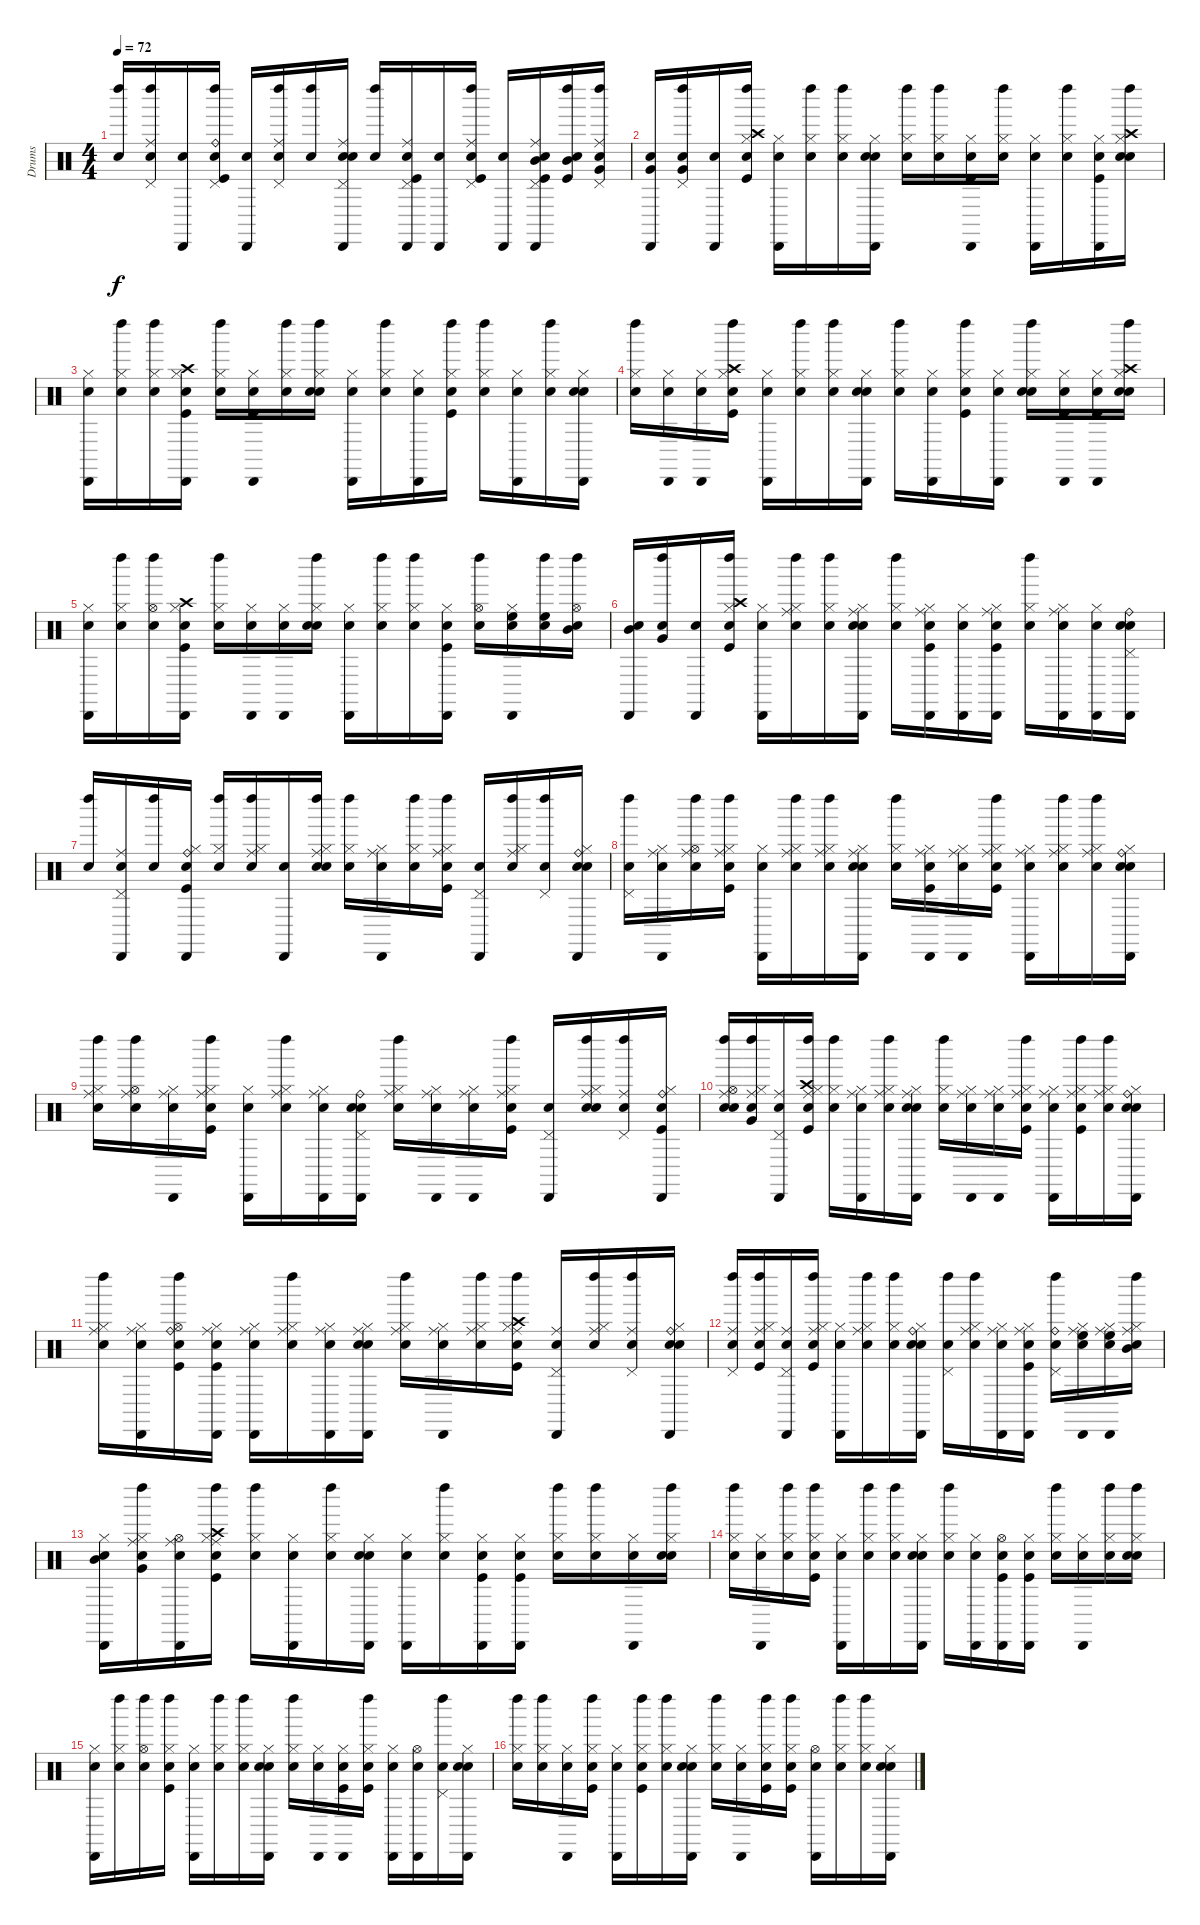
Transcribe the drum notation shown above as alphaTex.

\track ("Drums   " "Drums   ") {instrument percussion}
\staff {score}
\articulation defaults
\ts (4 4)
\tempo 72
\clef neutral
\ks c
("Snare (hit)" "Left Maraca (hit)").16{dy f} ("Snare (hit)" "Pedal Hi-Hat (hit)" "Ride (middle)" "Left Maraca (hit)").16 ("Snare (hit)" "Cabasa (hit)").16 ("Snare (hit)" "Pedal Hi-Hat (hit)" "Kick (hit)" "Ride (bell)" "Left Maraca (hit)").16 ("Snare (hit)" "Cabasa (hit)").16 ("Snare (hit)" "Pedal Hi-Hat (hit)" "Ride (middle)" "Left Maraca (hit)").16 ("Snare (hit)" "Left Maraca (hit)").16 ("Snare (hit)" "Cabasa (hit)" "Pedal Hi-Hat (hit)" "Ride (middle)" "Snare (hit) 2").16 ("Snare (hit)" "Left Maraca (hit)").16 ("Snare (hit)" "Cabasa (hit)" "Kick (hit)" "Pedal Hi-Hat (hit)" "Ride (middle)").16 ("Snare (hit)" "Cabasa (hit)").16 ("Snare (hit)" "Pedal Hi-Hat (hit)" "Kick (hit)" "Ride (middle)" "Left Maraca (hit)").16 ("Snare (hit)" "Cabasa (hit)").16 ("Snare (hit)" "Ride (middle)" "Cabasa (hit)" "Kick (hit)" "Mid Tom (hit)" "Pedal Hi-Hat (hit)").16 ("Snare (hit)" "Mid Tom (hit)" "Kick (hit)" "Left Maraca (hit)").16 ("Snare (hit)" "Ride (middle)" "Very Low Tom (hit)" "Pedal Hi-Hat (hit)" "Left Maraca (hit)").16 |
("Snare (hit)" "Cabasa (hit)" "Very Low Tom (hit)").16 ("Snare (hit)" "Very Low Tom (hit)" "Pedal Hi-Hat (hit)" "Left Maraca (hit)").16 ("Snare (hit)" "Cabasa (hit)").16 ("Snare (hit)" "Hi-Hat (closed)" "Kick (hit)" "Crash high (hit)" "Left Maraca (hit)").16 ("Snare (hit)" "Cabasa (hit)" "Hi-Hat (closed)").16 ("Snare (hit)" "Hi-Hat (closed)" "Left Maraca (hit)").16 ("Snare (hit)" "Hi-Hat (closed)" "Left Maraca (hit)").16 ("Snare (hit)" "Cabasa (hit)" "Snare (hit) 2" "Hi-Hat (closed)").16 ("Snare (hit)" "Hi-Hat (closed)" "Left Maraca (hit)").16 ("Snare (hit)" "Left Maraca (hit)" "Hi-Hat (closed)").16 ("Snare (hit)" "Kick (hit)" "Hi-Hat (closed)" "Cabasa (hit)").16 ("Snare (hit)" "Hi-Hat (closed)" "Left Maraca (hit)").16 ("Snare (hit)" "Cabasa (hit)" "Hi-Hat (closed)").16 ("Snare (hit)" "Hi-Hat (closed)" "Left Maraca (hit)").16 ("Snare (hit)" "Cabasa (hit)" "Kick (hit)" "Hi-Hat (closed)").16 ("Snare (hit)" "Snare (hit) 2" "Crash high (hit)" "Hi-Hat (closed)" "Left Maraca (hit)").16 |
("Snare (hit)" "Cabasa (hit)" "Hi-Hat (closed)").16 ("Snare (hit)" "Hi-Hat (closed)" "Left Maraca (hit)").16 ("Snare (hit)" "Hi-Hat (closed)" "Left Maraca (hit)").16 ("Snare (hit)" "Cabasa (hit)" "Kick (hit)" "Crash high (hit)" "Hi-Hat (closed)").16 ("Snare (hit)" "Left Maraca (hit)" "Hi-Hat (closed)").16 ("Snare (hit)" "Cabasa (hit)" "Kick (hit)" "Hi-Hat (closed)").16 ("Snare (hit)" "Left Maraca (hit)" "Hi-Hat (closed)").16 ("Snare (hit)" "Snare (hit) 2" "Hi-Hat (closed)" "Left Maraca (hit)").16 ("Snare (hit)" "Cabasa (hit)" "Hi-Hat (closed)").16 ("Snare (hit)" "Hi-Hat (closed)" "Left Maraca (hit)").16 ("Snare (hit)" "Hi-Hat (closed)" "Cabasa (hit)").16 ("Snare (hit)" "Kick (hit)" "Hi-Hat (closed)" "Left Maraca (hit)").16 ("Snare (hit)" "Hi-Hat (closed)" "Left Maraca (hit)").16 ("Snare (hit)" "Hi-Hat (closed)" "Cabasa (hit)").16 ("Snare (hit)" "Left Maraca (hit)" "Hi-Hat (closed)").16 ("Snare (hit)" "Cabasa (hit)" "Snare (hit) 2" "Hi-Hat (closed)").16 |
("Snare (hit)" "Hi-Hat (closed)" "Left Maraca (hit)").16 ("Snare (hit)" "Hi-Hat (closed)" "Cabasa (hit)").16 ("Snare (hit)" "Cabasa (hit)" "Hi-Hat (closed)").16 ("Snare (hit)" "Kick (hit)" "Crash high (hit)" "Hi-Hat (closed)" "Left Maraca (hit)").16 ("Snare (hit)" "Hi-Hat (closed)" "Cabasa (hit)").16 ("Snare (hit)" "Hi-Hat (closed)" "Left Maraca (hit)").16 ("Snare (hit)" "Hi-Hat (closed)" "Left Maraca (hit)").16 ("Snare (hit)" "Cabasa (hit)" "Hi-Hat (closed)" "Snare (hit) 2").16 ("Snare (hit)" "Hi-Hat (closed)" "Left Maraca (hit)").16 ("Snare (hit)" "Hi-Hat (closed)" "Cabasa (hit)").16 ("Snare (hit)" "Hi-Hat (closed)" "Kick (hit)" "Left Maraca (hit)").16 ("Snare (hit)" "Cabasa (hit)" "Hi-Hat (closed)").16 ("Snare (hit)" "Hi-Hat (closed)" "Snare (hit) 2" "Left Maraca (hit)").16 ("Snare (hit)" "Hi-Hat (closed)" "Kick (hit)" "Cabasa (hit)").16 ("Snare (hit)" "Cabasa (hit)" "Kick (hit)" "Hi-Hat (closed)").16 ("Snare (hit)" "Left Maraca (hit)" "Snare (hit) 2" "Hi-Hat (closed)" "Crash high (hit)").16 |
("Snare (hit)" "Hi-Hat (closed)" "Cabasa (hit)").16 ("Snare (hit)" "Hi-Hat (closed)" "Left Maraca (hit)").16 ("Snare (hit)" "Hi-Hat (open)" "Left Maraca (hit)").16 ("Snare (hit)" "Cabasa (hit)" "Kick (hit)" "Hi-Hat (closed)" "Crash high (hit)").16 ("Snare (hit)" "Hi-Hat (closed)" "Left Maraca (hit)").16 ("Snare (hit)" "Hi-Hat (closed)" "Cabasa (hit)").16 ("Snare (hit)" "Cabasa (hit)" "Hi-Hat (closed)").16 ("Snare (hit)" "Snare (hit) 2" "Left Maraca (hit)" "Hi-Hat (closed)").16 ("Snare (hit)" "Cabasa (hit)" "Hi-Hat (closed)").16 ("Snare (hit)" "Hi-Hat (closed)" "Left Maraca (hit)").16 ("Snare (hit)" "Hi-Hat (closed)" "Left Maraca (hit)").16 ("Snare (hit)" "Cabasa (hit)" "Hi-Hat (closed)" "Kick (hit)").16 ("Snare (hit)" "Hi-Hat (open)" "Left Maraca (hit)").16 ("Snare (hit)" "Cabasa (hit)" "High Floor Tom (hit)" "Hi-Hat (closed)").16 ("Snare (hit)" "High Floor Tom (hit)" "Left Maraca (hit)").16 ("Snare (hit)" "Mid Tom (hit)" "Left Maraca (hit)" "Hi-Hat (open)").16 |
("Snare (hit)" "Mid Tom (hit)" "Cabasa (hit)").16 ("Snare (hit)" "Very Low Tom (hit)" "Left Maraca (hit)").16 ("Snare (hit)" "Cabasa (hit)").16 ("Snare (hit)" "Hi-Hat (closed)" "Kick (hit)" "Crash high (hit)" "Left Maraca (hit)").16 ("Snare (hit)" "Cabasa (hit)" "Hi-Hat (closed)").16 ("Snare (hit)" "Ride (middle)" "Left Maraca (hit)" "Hi-Hat (closed)").16 ("Snare (hit)" "Hi-Hat (closed)" "Left Maraca (hit)").16 ("Snare (hit)" "Ride (middle)" "Snare (hit) 2" "Cabasa (hit)" "Hi-Hat (closed)").16 ("Snare (hit)" "Hi-Hat (closed)" "Left Maraca (hit)").16 ("Snare (hit)" "Cabasa (hit)" "Kick (hit)" "Hi-Hat (closed)" "Ride (middle)").16 ("Snare (hit)" "Cabasa (hit)" "Hi-Hat (closed)").16 ("Snare (hit)" "Kick (hit)" "Hi-Hat (closed)" "Ride (middle)" "Cabasa (hit)").16 ("Snare (hit)" "Hi-Hat (closed)" "Left Maraca (hit)").16 ("Snare (hit)" "Ride (middle)" "Hi-Hat (closed)" "Cabasa (hit)").16 ("Snare (hit)" "Cabasa (hit)" "Hi-Hat (closed)").16 ("Snare (hit)" "Pedal Hi-Hat (hit)" "Ride (bell)" "Snare (hit) 2" "Cabasa (hit)").16 |
("Snare (hit)" "Left Maraca (hit)").16 ("Snare (hit)" "Cabasa (hit)" "Pedal Hi-Hat (hit)" "Ride (middle)").16 ("Snare (hit)" "Left Maraca (hit)").16 ("Snare (hit)" "Cabasa (hit)" "Kick (hit)" "Hi-Hat (closed)" "Ride (bell)").16 ("Snare (hit)" "Hi-Hat (closed)" "Left Maraca (hit)").16 ("Snare (hit)" "Hi-Hat (closed)" "Left Maraca (hit)" "Ride (middle)").16 ("Snare (hit)" "Cabasa (hit)").16 ("Snare (hit)" "Hi-Hat (closed)" "Ride (middle)" "Snare (hit) 2" "Left Maraca (hit)").16 ("Snare (hit)" "Hi-Hat (closed)" "Left Maraca (hit)").16 ("Snare (hit)" "Cabasa (hit)" "Ride (middle)" "Hi-Hat (closed)").16 ("Snare (hit)" "Left Maraca (hit)" "Hi-Hat (closed)").16 ("Snare (hit)" "Ride (middle)" "Kick (hit)" "Left Maraca (hit)" "Hi-Hat (closed)").16 ("Snare (hit)" "Cabasa (hit)" "Pedal Hi-Hat (hit)").16 ("Snare (hit)" "Hi-Hat (closed)" "Ride (middle)" "Left Maraca (hit)").16 ("Snare (hit)" "Pedal Hi-Hat (hit)" "Left Maraca (hit)").16 ("Snare (hit)" "Ride (bell)" "Hi-Hat (closed)" "Snare (hit) 2" "Cabasa (hit)").16 |
("Snare (hit)" "Pedal Hi-Hat (hit)" "Left Maraca (hit)").16 ("Snare (hit)" "Cabasa (hit)" "Ride (middle)" "Hi-Hat (closed)").16 ("Snare (hit)" "Left Maraca (hit)" "Hi-Hat (open)" "Ride (middle)").16 ("Snare (hit)" "Kick (hit)" "Ride (middle)" "Hi-Hat (closed)" "Left Maraca (hit)").16 ("Snare (hit)" "Cabasa (hit)" "Hi-Hat (closed)").16 ("Snare (hit)" "Hi-Hat (closed)" "Ride (middle)" "Left Maraca (hit)").16 ("Snare (hit)" "Hi-Hat (closed)" "Ride (middle)" "Left Maraca (hit)").16 ("Snare (hit)" "Cabasa (hit)" "Ride (middle)" "Hi-Hat (closed)" "Snare (hit) 2").16 ("Snare (hit)" "Hi-Hat (closed)" "Left Maraca (hit)").16 ("Snare (hit)" "Hi-Hat (closed)" "Cabasa (hit)" "Kick (hit)" "Ride (middle)").16 ("Snare (hit)" "Ride (middle)" "Cabasa (hit)" "Hi-Hat (closed)").16 ("Snare (hit)" "Kick (hit)" "Ride (middle)" "Hi-Hat (closed)" "Left Maraca (hit)").16 ("Snare (hit)" "Hi-Hat (closed)" "Ride (middle)" "Cabasa (hit)").16 ("Snare (hit)" "Hi-Hat (closed)" "Ride (middle)" "Left Maraca (hit)").16 ("Snare (hit)" "Hi-Hat (closed)" "Ride (middle)" "Left Maraca (hit)").16 ("Snare (hit)" "Hi-Hat (closed)" "Snare (hit) 2" "Ride (bell)" "Cabasa (hit)").16 |
("Snare (hit)" "Ride (middle)" "Left Maraca (hit)" "Hi-Hat (closed)").16 ("Snare (hit)" "Hi-Hat (open)" "Ride (middle)" "Left Maraca (hit)").16 ("Snare (hit)" "Hi-Hat (closed)" "Ride (middle)" "Cabasa (hit)").16 ("Snare (hit)" "Ride (middle)" "Left Maraca (hit)" "Kick (hit)" "Hi-Hat (closed)").16 ("Snare (hit)" "Cabasa (hit)" "Hi-Hat (closed)").16 ("Snare (hit)" "Left Maraca (hit)" "Hi-Hat (closed)" "Ride (middle)").16 ("Snare (hit)" "Ride (middle)" "Hi-Hat (closed)" "Cabasa (hit)").16 ("Snare (hit)" "Ride (bell)" "Snare (hit) 2" "Pedal Hi-Hat (hit)" "Cabasa (hit)").16 ("Snare (hit)" "Ride (middle)" "Hi-Hat (closed)" "Left Maraca (hit)").16 ("Snare (hit)" "Ride (middle)" "Hi-Hat (closed)" "Cabasa (hit)").16 ("Snare (hit)" "Cabasa (hit)" "Hi-Hat (closed)" "Ride (middle)").16 ("Snare (hit)" "Hi-Hat (closed)" "Kick (hit)" "Ride (middle)" "Left Maraca (hit)").16 ("Snare (hit)" "Cabasa (hit)" "Pedal Hi-Hat (hit)").16 ("Snare (hit)" "Ride (middle)" "Snare (hit) 2" "Left Maraca (hit)" "Hi-Hat (closed)").16 ("Snare (hit)" "Ride (middle)" "Pedal Hi-Hat (hit)" "Left Maraca (hit)").16 ("Snare (hit)" "Ride (bell)" "Cabasa (hit)" "Kick (hit)" "Hi-Hat (closed)").16 |
("Snare (hit)" "Snare (hit) 2" "Ride (middle)" "Hi-Hat (open)" "Left Maraca (hit)").16 ("Snare (hit)" "Ride (middle)" "Left Maraca (hit)" "Hi-Hat (closed)" "Very Low Tom (hit)").16 ("Snare (hit)" "Cabasa (hit)" "Pedal Hi-Hat (hit)" "Ride (middle)").16 ("Snare (hit)" "Ride (middle)" "Kick (hit)" "Hi-Hat (closed)" "Crash high (hit)" "Left Maraca (hit)").16 ("Snare (hit)" "Hi-Hat (closed)" "Left Maraca (hit)").16 ("Snare (hit)" "Hi-Hat (closed)" "Ride (middle)" "Cabasa (hit)").16 ("Snare (hit)" "Left Maraca (hit)" "Hi-Hat (closed)" "Ride (middle)").16 ("Snare (hit)" "Cabasa (hit)" "Hi-Hat (closed)" "Snare (hit) 2" "Ride (middle)").16 ("Snare (hit)" "Hi-Hat (closed)" "Left Maraca (hit)").16 ("Snare (hit)" "Ride (middle)" "Hi-Hat (closed)" "Cabasa (hit)").16 ("Snare (hit)" "Ride (middle)" "Hi-Hat (closed)" "Cabasa (hit)").16 ("Snare (hit)" "Kick (hit)" "Hi-Hat (closed)" "Ride (middle)" "Left Maraca (hit)").16 ("Snare (hit)" "Ride (middle)" "Cabasa (hit)" "Hi-Hat (closed)").16 ("Snare (hit)" "Kick (hit)" "Hi-Hat (closed)" "Ride (middle)" "Left Maraca (hit)").16 ("Snare (hit)" "Ride (middle)" "Left Maraca (hit)" "Hi-Hat (closed)").16 ("Snare (hit)" "Ride (bell)" "Snare (hit) 2" "Hi-Hat (closed)" "Cabasa (hit)").16 |
("Snare (hit)" "Ride (middle)" "Hi-Hat (closed)" "Left Maraca (hit)").16 ("Snare (hit)" "Ride (middle)" "Cabasa (hit)" "Hi-Hat (closed)").16 ("Snare (hit)" "Kick (hit)" "Hi-Hat (open)" "Ride (bell)" "Left Maraca (hit)").16 ("Snare (hit)" "Kick (hit)" "Cabasa (hit)" "Hi-Hat (closed)" "Ride (middle)").16 ("Snare (hit)" "Hi-Hat (closed)" "Ride (middle)" "Cabasa (hit)").16 ("Snare (hit)" "Hi-Hat (closed)" "Ride (middle)" "Left Maraca (hit)").16 ("Snare (hit)" "Cabasa (hit)" "Hi-Hat (closed)" "Ride (middle)").16 ("Snare (hit)" "Hi-Hat (closed)" "Ride (middle)" "Snare (hit) 2" "Cabasa (hit)").16 ("Snare (hit)" "Ride (middle)" "Hi-Hat (closed)" "Left Maraca (hit)").16 ("Snare (hit)" "Hi-Hat (closed)" "Ride (middle)" "Cabasa (hit)").16 ("Snare (hit)" "Hi-Hat (closed)" "Ride (middle)" "Left Maraca (hit)").16 ("Snare (hit)" "Ride (middle)" "Left Maraca (hit)" "Kick (hit)" "Crash high (hit)" "Hi-Hat (closed)").16 ("Snare (hit)" "Cabasa (hit)" "Pedal Hi-Hat (hit)" "Ride (middle)").16 ("Snare (hit)" "Ride (middle)" "Hi-Hat (closed)" "Left Maraca (hit)").16 ("Snare (hit)" "Ride (middle)" "Pedal Hi-Hat (hit)" "Left Maraca (hit)").16 ("Snare (hit)" "Ride (bell)" "Hi-Hat (closed)" "Snare (hit) 2" "Cabasa (hit)").16 |
("Snare (hit)" "Ride (middle)" "Pedal Hi-Hat (hit)" "Left Maraca (hit)").16 ("Snare (hit)" "Ride (middle)" "Left Maraca (hit)" "Kick (hit)" "Hi-Hat (closed)").16 ("Snare (hit)" "Ride (middle)" "Cabasa (hit)" "Pedal Hi-Hat (hit)").16 ("Snare (hit)" "Kick (hit)" "Hi-Hat (closed)" "Ride (middle)" "Left Maraca (hit)").16 ("Snare (hit)" "Hi-Hat (closed)" "Cabasa (hit)").16 ("Snare (hit)" "Hi-Hat (closed)" "Ride (middle)" "Left Maraca (hit)").16 ("Snare (hit)" "Hi-Hat (closed)" "Left Maraca (hit)").16 ("Snare (hit)" "Ride (bell)" "Hi-Hat (closed)" "Cabasa (hit)" "Snare (hit) 2").16 ("Snare (hit)" "Left Maraca (hit)" "Pedal Hi-Hat (hit)").16 ("Snare (hit)" "Left Maraca (hit)" "Ride (middle)" "Hi-Hat (closed)").16 ("Snare (hit)" "Ride (middle)" "Cabasa (hit)" "Hi-Hat (closed)").16 ("Snare (hit)" "Cabasa (hit)" "Kick (hit)" "Hi-Hat (closed)" "Ride (middle)").16 ("Snare (hit)" "Left Maraca (hit)" "Pedal Hi-Hat (hit)" "Ride (bell)").16 ("Snare (hit)" "Cabasa (hit)" "Hi-Hat (closed)" "High Floor Tom (hit)" "Ride (middle)").16 ("Snare (hit)" "Cabasa (hit)" "High Floor Tom (hit)" "Ride (middle)" "Hi-Hat (closed)").16 ("Snare (hit)" "Mid Tom (hit)" "Ride (middle)" "Hi-Hat (closed)" "Left Maraca (hit)").16 |
("Snare (hit)" "Hi-Hat (closed)" "Mid Tom (hit)" "Cabasa (hit)").16 ("Snare (hit)" "Ride (middle)" "Hi-Hat (closed)" "Very Low Tom (hit)" "Left Maraca (hit)").16 ("Snare (hit)" "Ride (middle)" "Hi-Hat (open)" "Cabasa (hit)").16 ("Snare (hit)" "Ride (middle)" "Hi-Hat (closed)" "Kick (hit)" "Crash high (hit)" "Left Maraca (hit)").16 ("Snare (hit)" "Hi-Hat (closed)" "Left Maraca (hit)").16 ("Snare (hit)" "Cabasa (hit)" "Hi-Hat (closed)").16 ("Snare (hit)" "Hi-Hat (closed)" "Left Maraca (hit)").16 ("Snare (hit)" "Cabasa (hit)" "Snare (hit) 2" "Hi-Hat (closed)").16 ("Snare (hit)" "Cabasa (hit)" "Hi-Hat (closed)").16 ("Snare (hit)" "Hi-Hat (closed)" "Left Maraca (hit)").16 ("Snare (hit)" "Hi-Hat (closed)" "Cabasa (hit)" "Kick (hit)").16 ("Snare (hit)" "Cabasa (hit)" "Kick (hit)" "Hi-Hat (closed)").16 ("Snare (hit)" "Left Maraca (hit)" "Hi-Hat (closed)").16 ("Snare (hit)" "Hi-Hat (closed)" "Left Maraca (hit)").16 ("Snare (hit)" "Cabasa (hit)" "Hi-Hat (closed)").16 ("Snare (hit)" "Hi-Hat (closed)" "Snare (hit) 2" "Left Maraca (hit)").16 |
("Snare (hit)" "Left Maraca (hit)" "Hi-Hat (closed)").16 ("Snare (hit)" "Hi-Hat (closed)" "Cabasa (hit)").16 ("Snare (hit)" "Left Maraca (hit)" "Hi-Hat (closed)").16 ("Snare (hit)" "Kick (hit)" "Hi-Hat (closed)" "Left Maraca (hit)").16 ("Snare (hit)" "Cabasa (hit)" "Hi-Hat (closed)").16 ("Snare (hit)" "Left Maraca (hit)" "Hi-Hat (closed)").16 ("Snare (hit)" "Hi-Hat (closed)" "Left Maraca (hit)").16 ("Snare (hit)" "Cabasa (hit)" "Snare (hit) 2" "Hi-Hat (closed)").16 ("Snare (hit)" "Left Maraca (hit)" "Hi-Hat (closed)").16 ("Snare (hit)" "Hi-Hat (closed)" "Cabasa (hit)").16 ("Snare (hit)" "Cabasa (hit)" "Kick (hit)" "Hi-Hat (open)").16 ("Snare (hit)" "Cabasa (hit)" "Kick (hit)" "Hi-Hat (closed)").16 ("Snare (hit)" "Hi-Hat (closed)" "Left Maraca (hit)").16 ("Snare (hit)" "Cabasa (hit)" "Hi-Hat (closed)").16 ("Snare (hit)" "Hi-Hat (closed)" "Left Maraca (hit)").16 ("Snare (hit)" "Snare (hit) 2" "Left Maraca (hit)" "Hi-Hat (closed)").16 |
("Snare (hit)" "Cabasa (hit)" "Hi-Hat (closed)").16 ("Snare (hit)" "Hi-Hat (closed)" "Left Maraca (hit)").16 ("Snare (hit)" "Hi-Hat (open)" "Left Maraca (hit)").16 ("Snare (hit)" "Hi-Hat (closed)" "Left Maraca (hit)" "Kick (hit)").16 ("Snare (hit)" "Cabasa (hit)" "Hi-Hat (closed)").16 ("Snare (hit)" "Hi-Hat (closed)" "Left Maraca (hit)").16 ("Snare (hit)" "Left Maraca (hit)" "Hi-Hat (closed)").16 ("Snare (hit)" "Cabasa (hit)" "Hi-Hat (closed)" "Snare (hit) 2").16 ("Snare (hit)" "Left Maraca (hit)" "Hi-Hat (closed)").16 ("Snare (hit)" "Cabasa (hit)" "Hi-Hat (closed)").16 ("Snare (hit)" "Hi-Hat (closed)" "Cabasa (hit)" "Kick (hit)").16 ("Snare (hit)" "Kick (hit)" "Hi-Hat (closed)" "Left Maraca (hit)").16 ("Snare (hit)" "Cabasa (hit)" "Hi-Hat (closed)").16 ("Snare (hit)" "Cabasa (hit)" "Hi-Hat (open)").16 ("Snare (hit)" "Pedal Hi-Hat (hit)" "Left Maraca (hit)").16 ("Snare (hit)" "Snare (hit) 2" "Cabasa (hit)" "Hi-Hat (closed)").16 |
("Snare (hit)" "Left Maraca (hit)" "Hi-Hat (closed)").16 ("Snare (hit)" "Left Maraca (hit)" "Hi-Hat (closed)").16 ("Snare (hit)" "Cabasa (hit)" "Hi-Hat (closed)").16 ("Snare (hit)" "Hi-Hat (closed)" "Kick (hit)" "Left Maraca (hit)").16 ("Snare (hit)" "Hi-Hat (closed)" "Cabasa (hit)").16 ("Snare (hit)" "Kick (hit)" "Hi-Hat (closed)" "Left Maraca (hit)").16 ("Snare (hit)" "Hi-Hat (closed)" "Left Maraca (hit)").16 ("Snare (hit)" "Cabasa (hit)" "Snare (hit) 2" "Hi-Hat (closed)").16 ("Snare (hit)" "Hi-Hat (closed)" "Left Maraca (hit)").16 ("Snare (hit)" "Cabasa (hit)" "Hi-Hat (closed)").16 ("Snare (hit)" "Hi-Hat (closed)" "Kick (hit)" "Left Maraca (hit)").16 ("Snare (hit)" "Hi-Hat (closed)" "Kick (hit)" "Left Maraca (hit)").16 ("Snare (hit)" "Hi-Hat (open)" "Cabasa (hit)").16 ("Snare (hit)" "Hi-Hat (closed)" "Left Maraca (hit)").16 ("Snare (hit)" "Hi-Hat (closed)" "Left Maraca (hit)").16 ("Snare (hit)" "Snare (hit) 2" "Cabasa (hit)" "Hi-Hat (closed)").16
